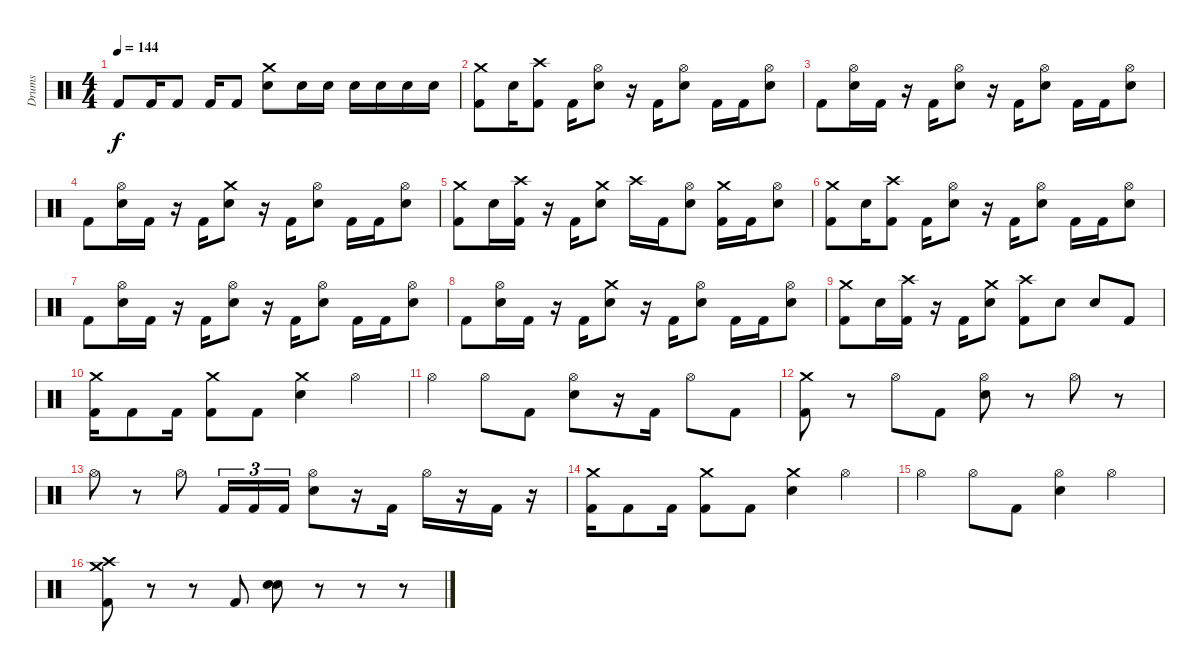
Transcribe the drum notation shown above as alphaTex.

\track ("Drums" "Drums") {instrument percussion}
\staff {score}
\articulation defaults
\ts (4 4)
\tempo 144
\clef neutral
\ks c "Kick (hit) 2".8{dy f} "Kick (hit) 2".16 "Kick (hit) 2".8 "Kick (hit) 2".16 "Kick (hit) 2".8
("Crash medium (hit)" "Electric Snare (hit)").8 "Electric Snare (hit)".16 "Electric Snare (hit)".16 "Electric Snare (hit)".16 "Electric Snare (hit)".16 "Electric Snare (hit)".16 "Electric Snare (hit)".16 |
("Crash medium (hit)" "Kick (hit) 2").8 "Electric Snare (hit)".16 ("Crash high (hit)" "Kick (hit) 2").8 "Kick (hit) 2".16 ("Hi-Hat (open)" "Electric Snare (hit)").8 r.16 "Kick (hit) 2".16 ("Hi-Hat (open)" "Electric Snare (hit)").8 "Kick (hit) 2".16 "Kick (hit) 2".16 ("Hi-Hat (open)" "Electric Snare (hit)").8 |
"Kick (hit) 2".8 ("Hi-Hat (open)" "Electric Snare (hit)").16 "Kick (hit) 2".16 r.16 "Kick (hit) 2".16 ("Hi-Hat (open)" "Electric Snare (hit)").8 r.16 "Kick (hit) 2".16 ("Hi-Hat (open)" "Electric Snare (hit)").8 "Kick (hit) 2".16 "Kick (hit) 2".16 ("Hi-Hat (open)" "Electric Snare (hit)").8 |
"Kick (hit) 2".8 ("Hi-Hat (open)" "Electric Snare (hit)").16 "Kick (hit) 2".16 r.16 "Kick (hit) 2".16 ("Crash medium (hit)" "Electric Snare (hit)").8 r.16 "Kick (hit) 2".16 ("Hi-Hat (open)" "Electric Snare (hit)").8 "Kick (hit) 2".16 "Kick (hit) 2".16 ("Hi-Hat (open)" "Electric Snare (hit)").8 |
("Crash medium (hit)" "Kick (hit) 2").8 "Electric Snare (hit)".16 ("Crash high (hit)" "Kick (hit) 2").16 r.16 "Kick (hit) 2".16 ("Crash medium (hit)" "Electric Snare (hit)").8 "Crash high (hit)".16 "Kick (hit) 2".16 ("Hi-Hat (open)" "Electric Snare (hit)").8 ("Crash medium (hit)" "Kick (hit) 2").16 "Kick (hit) 2".16 ("Hi-Hat (open)" "Electric Snare (hit)").8 |
("Crash medium (hit)" "Kick (hit) 2").8 "Electric Snare (hit)".16 ("Crash high (hit)" "Kick (hit) 2").8 "Kick (hit) 2".16 ("Hi-Hat (open)" "Electric Snare (hit)").8 r.16 "Kick (hit) 2".16 ("Hi-Hat (open)" "Electric Snare (hit)").8 "Kick (hit) 2".16 "Kick (hit) 2".16 ("Hi-Hat (open)" "Electric Snare (hit)").8 |
"Kick (hit) 2".8 ("Hi-Hat (open)" "Electric Snare (hit)").16 "Kick (hit) 2".16 r.16 "Kick (hit) 2".16 ("Hi-Hat (open)" "Electric Snare (hit)").8 r.16 "Kick (hit) 2".16 ("Hi-Hat (open)" "Electric Snare (hit)").8 "Kick (hit) 2".16 "Kick (hit) 2".16 ("Hi-Hat (open)" "Electric Snare (hit)").8 |
"Kick (hit) 2".8 ("Hi-Hat (open)" "Electric Snare (hit)").16 "Kick (hit) 2".16 r.16 "Kick (hit) 2".16 ("Crash medium (hit)" "Electric Snare (hit)").8 r.16 "Kick (hit) 2".16 ("Hi-Hat (open)" "Electric Snare (hit)").8 "Kick (hit) 2".16 "Kick (hit) 2".16 ("Hi-Hat (open)" "Electric Snare (hit)").8 |
("Crash medium (hit)" "Kick (hit) 2").8 "Electric Snare (hit)".16 ("Crash high (hit)" "Kick (hit) 2").16 r.16 "Kick (hit) 2".16 ("Crash medium (hit)" "Electric Snare (hit)").8 ("Crash high (hit)" "Kick (hit) 2").8 "Electric Snare (hit)".8 "Electric Snare (hit)".8 "Kick (hit) 2".8 |
("Crash medium (hit)" "Kick (hit) 2").16 "Kick (hit) 2".8 "Kick (hit) 2".16 ("Crash medium (hit)" "Kick (hit) 2").8 "Kick (hit) 2".8 ("Crash medium (hit)" "Electric Snare (hit)").4 "Hi-Hat (open)".4 |
"Hi-Hat (open)".4 "Hi-Hat (open)".8 "Kick (hit) 2".8 ("Hi-Hat (open)" "Electric Snare (hit)").8 r.16 "Kick (hit) 2".16 "Hi-Hat (open)".8 "Kick (hit) 2".8 |
("Crash medium (hit)" "Kick (hit) 2").8 r.8 "Hi-Hat (open)".8 "Kick (hit) 2".8 ("Hi-Hat (open)" "Electric Snare (hit)").8 r.8 "Hi-Hat (open)".8 r.8 |
"Hi-Hat (open)".8 r.8 "Hi-Hat (open)".8 "Kick (hit) 2".16{tu (3 2)} "Kick (hit) 2".16{tu (3 2)} "Kick (hit) 2".16{tu (3 2)} ("Hi-Hat (open)" "Electric Snare (hit)").8 r.16 "Kick (hit) 2".16 "Hi-Hat (open)".16 r.16 "Kick (hit) 2".16 r.16 |
("Crash medium (hit)" "Kick (hit) 2").16 "Kick (hit) 2".8 "Kick (hit) 2".16 ("Crash medium (hit)" "Kick (hit) 2").8 "Kick (hit) 2".8 ("Crash medium (hit)" "Electric Snare (hit)").4 "Hi-Hat (open)".4 |
"Hi-Hat (open)".4 "Hi-Hat (open)".8 "Kick (hit) 2".8 ("Hi-Hat (open)" "Electric Snare (hit)").4 "Hi-Hat (open)".4 |
("Crash medium (hit)" "Crash high (hit)" "Kick (hit) 2").8 r.8 r.8 "Kick (hit) 2".8 ("Electric Snare (hit)" "Electric Snare (hit)").8 r.8 r.8 r.8
